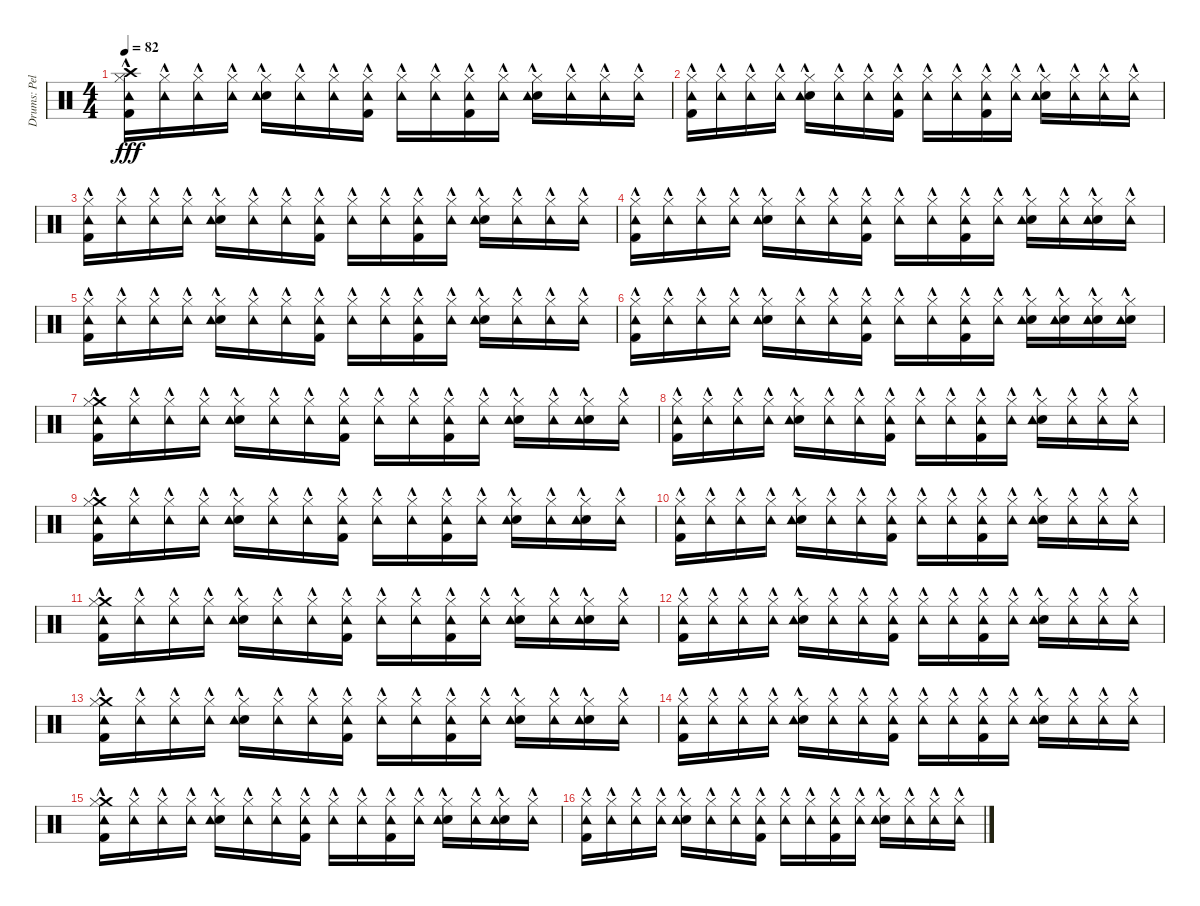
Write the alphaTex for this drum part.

\track ("Drums: Pelle" "Drums: Pel") {instrument percussion}
\staff {score}
\articulation defaults
\ts (4 4)
\tempo 82
\clef neutral
\ks c
("Crash high (hit)"{hac} "Hi-Hat (closed)"{hac} "Tambourine (hit)"{hac} "Kick (hit) 2"{hac}).16{dy fff} ("Hi-Hat (closed)"{hac} "Tambourine (hit)"{hac}).16 ("Hi-Hat (closed)"{hac} "Tambourine (hit)"{hac}).16 ("Hi-Hat (closed)"{hac} "Tambourine (hit)"{hac}).16 ("Hi-Hat (closed)"{hac} "Snare (hit) 2"{hac} "Tambourine (hit)"{hac}).16 ("Hi-Hat (closed)"{hac} "Tambourine (hit)"{hac}).16 ("Hi-Hat (closed)"{hac} "Tambourine (hit)"{hac}).16 ("Hi-Hat (closed)"{hac} "Tambourine (hit)"{hac} "Kick (hit) 2"{hac}).16 ("Hi-Hat (closed)"{hac} "Tambourine (hit)"{hac}).16 ("Hi-Hat (closed)"{hac} "Tambourine (hit)"{hac}).16 ("Hi-Hat (closed)"{hac} "Tambourine (hit)"{hac} "Kick (hit) 2"{hac}).16 ("Hi-Hat (closed)"{hac} "Tambourine (hit)"{hac}).16 ("Hi-Hat (closed)"{hac} "Snare (hit) 2"{hac} "Tambourine (hit)"{hac}).16 ("Hi-Hat (closed)"{hac} "Tambourine (hit)"{hac}).16 ("Hi-Hat (closed)"{hac} "Tambourine (hit)"{hac}).16 ("Hi-Hat (closed)"{hac} "Tambourine (hit)"{hac}).16 |
("Hi-Hat (closed)"{hac} "Tambourine (hit)"{hac} "Kick (hit) 2"{hac}).16 ("Hi-Hat (closed)"{hac} "Tambourine (hit)"{hac}).16 ("Hi-Hat (closed)"{hac} "Tambourine (hit)"{hac}).16 ("Hi-Hat (closed)"{hac} "Tambourine (hit)"{hac}).16 ("Hi-Hat (closed)"{hac} "Snare (hit) 2"{hac} "Tambourine (hit)"{hac}).16 ("Hi-Hat (closed)"{hac} "Tambourine (hit)"{hac}).16 ("Hi-Hat (closed)"{hac} "Tambourine (hit)"{hac}).16 ("Hi-Hat (closed)"{hac} "Tambourine (hit)"{hac} "Kick (hit) 2"{hac}).16 ("Hi-Hat (closed)"{hac} "Tambourine (hit)"{hac}).16 ("Hi-Hat (closed)"{hac} "Tambourine (hit)"{hac}).16 ("Hi-Hat (closed)"{hac} "Tambourine (hit)"{hac} "Kick (hit) 2"{hac}).16 ("Hi-Hat (closed)"{hac} "Tambourine (hit)"{hac}).16 ("Hi-Hat (closed)"{hac} "Snare (hit) 2"{hac} "Tambourine (hit)"{hac}).16 ("Hi-Hat (closed)"{hac} "Tambourine (hit)"{hac}).16 ("Hi-Hat (closed)"{hac} "Tambourine (hit)"{hac}).16 ("Hi-Hat (closed)"{hac} "Tambourine (hit)"{hac}).16 |
("Hi-Hat (closed)"{hac} "Tambourine (hit)"{hac} "Kick (hit) 2"{hac}).16 ("Hi-Hat (closed)"{hac} "Tambourine (hit)"{hac}).16 ("Hi-Hat (closed)"{hac} "Tambourine (hit)"{hac}).16 ("Hi-Hat (closed)"{hac} "Tambourine (hit)"{hac}).16 ("Hi-Hat (closed)"{hac} "Snare (hit) 2"{hac} "Tambourine (hit)"{hac}).16 ("Hi-Hat (closed)"{hac} "Tambourine (hit)"{hac}).16 ("Hi-Hat (closed)"{hac} "Tambourine (hit)"{hac}).16 ("Hi-Hat (closed)"{hac} "Tambourine (hit)"{hac} "Kick (hit) 2"{hac}).16 ("Hi-Hat (closed)"{hac} "Tambourine (hit)"{hac}).16 ("Hi-Hat (closed)"{hac} "Tambourine (hit)"{hac}).16 ("Hi-Hat (closed)"{hac} "Tambourine (hit)"{hac} "Kick (hit) 2"{hac}).16 ("Hi-Hat (closed)"{hac} "Tambourine (hit)"{hac}).16 ("Hi-Hat (closed)"{hac} "Snare (hit) 2"{hac} "Tambourine (hit)"{hac}).16 ("Hi-Hat (closed)"{hac} "Tambourine (hit)"{hac}).16 ("Hi-Hat (closed)"{hac} "Tambourine (hit)"{hac}).16 ("Hi-Hat (closed)"{hac} "Tambourine (hit)"{hac}).16 |
("Hi-Hat (closed)"{hac} "Tambourine (hit)"{hac} "Kick (hit) 2"{hac}).16 ("Hi-Hat (closed)"{hac} "Tambourine (hit)"{hac}).16 ("Hi-Hat (closed)"{hac} "Tambourine (hit)"{hac}).16 ("Hi-Hat (closed)"{hac} "Tambourine (hit)"{hac}).16 ("Hi-Hat (closed)"{hac} "Snare (hit) 2"{hac} "Tambourine (hit)"{hac}).16 ("Hi-Hat (closed)"{hac} "Tambourine (hit)"{hac}).16 ("Hi-Hat (closed)"{hac} "Tambourine (hit)"{hac}).16 ("Hi-Hat (closed)"{hac} "Tambourine (hit)"{hac} "Kick (hit) 2"{hac}).16 ("Hi-Hat (closed)"{hac} "Tambourine (hit)"{hac}).16 ("Hi-Hat (closed)"{hac} "Tambourine (hit)"{hac}).16 ("Hi-Hat (closed)"{hac} "Tambourine (hit)"{hac} "Kick (hit) 2"{hac}).16 ("Hi-Hat (closed)"{hac} "Tambourine (hit)"{hac}).16 ("Hi-Hat (closed)"{hac} "Snare (hit) 2"{hac} "Tambourine (hit)"{hac}).16 ("Hi-Hat (closed)"{hac} "Tambourine (hit)"{hac}).16 ("Hi-Hat (closed)"{hac} "Snare (hit) 2"{hac} "Tambourine (hit)"{hac}).16 ("Hi-Hat (closed)"{hac} "Tambourine (hit)"{hac}).16 |
("Hi-Hat (closed)"{hac} "Tambourine (hit)"{hac} "Kick (hit) 2"{hac}).16 ("Hi-Hat (closed)"{hac} "Tambourine (hit)"{hac}).16 ("Hi-Hat (closed)"{hac} "Tambourine (hit)"{hac}).16 ("Hi-Hat (closed)"{hac} "Tambourine (hit)"{hac}).16 ("Hi-Hat (closed)"{hac} "Snare (hit) 2"{hac} "Tambourine (hit)"{hac}).16 ("Hi-Hat (closed)"{hac} "Tambourine (hit)"{hac}).16 ("Hi-Hat (closed)"{hac} "Tambourine (hit)"{hac}).16 ("Hi-Hat (closed)"{hac} "Tambourine (hit)"{hac} "Kick (hit) 2"{hac}).16 ("Hi-Hat (closed)"{hac} "Tambourine (hit)"{hac}).16 ("Hi-Hat (closed)"{hac} "Tambourine (hit)"{hac}).16 ("Hi-Hat (closed)"{hac} "Tambourine (hit)"{hac} "Kick (hit) 2"{hac}).16 ("Hi-Hat (closed)"{hac} "Tambourine (hit)"{hac}).16 ("Hi-Hat (closed)"{hac} "Snare (hit) 2"{hac} "Tambourine (hit)"{hac}).16 ("Hi-Hat (closed)"{hac} "Tambourine (hit)"{hac}).16 ("Hi-Hat (closed)"{hac} "Tambourine (hit)"{hac}).16 ("Hi-Hat (closed)"{hac} "Tambourine (hit)"{hac}).16 |
("Hi-Hat (closed)"{hac} "Tambourine (hit)"{hac} "Kick (hit) 2"{hac}).16 ("Hi-Hat (closed)"{hac} "Tambourine (hit)"{hac}).16 ("Hi-Hat (closed)"{hac} "Tambourine (hit)"{hac}).16 ("Hi-Hat (closed)"{hac} "Tambourine (hit)"{hac}).16 ("Hi-Hat (closed)"{hac} "Snare (hit) 2"{hac} "Tambourine (hit)"{hac}).16 ("Hi-Hat (closed)"{hac} "Tambourine (hit)"{hac}).16 ("Hi-Hat (closed)"{hac} "Tambourine (hit)"{hac}).16 ("Hi-Hat (closed)"{hac} "Tambourine (hit)"{hac} "Kick (hit) 2"{hac}).16 ("Hi-Hat (closed)"{hac} "Tambourine (hit)"{hac}).16 ("Hi-Hat (closed)"{hac} "Tambourine (hit)"{hac}).16 ("Hi-Hat (closed)"{hac} "Tambourine (hit)"{hac} "Kick (hit) 2"{hac}).16 ("Hi-Hat (closed)"{hac} "Tambourine (hit)"{hac}).16 ("Hi-Hat (closed)"{hac} "Snare (hit) 2"{hac} "Tambourine (hit)"{hac}).16 ("Hi-Hat (closed)"{hac} "Snare (hit) 2"{hac} "Tambourine (hit)"{hac}).16 ("Hi-Hat (closed)"{hac} "Snare (hit) 2"{hac} "Tambourine (hit)"{hac}).16 ("Hi-Hat (closed)"{hac} "Snare (hit) 2"{hac} "Tambourine (hit)"{hac}).16 |
("Crash medium (hit)"{hac} "Hi-Hat (closed)"{hac} "Tambourine (hit)"{hac} "Kick (hit) 2"{hac}).16 ("Hi-Hat (closed)"{hac} "Tambourine (hit)"{hac}).16 ("Hi-Hat (closed)"{hac} "Tambourine (hit)"{hac}).16 ("Hi-Hat (closed)"{hac} "Tambourine (hit)"{hac}).16 ("Hi-Hat (closed)"{hac} "Snare (hit) 2"{hac} "Tambourine (hit)"{hac}).16 ("Hi-Hat (closed)"{hac} "Tambourine (hit)"{hac}).16 ("Hi-Hat (closed)"{hac} "Tambourine (hit)"{hac}).16 ("Hi-Hat (closed)"{hac} "Tambourine (hit)"{hac} "Kick (hit) 2"{hac}).16 ("Hi-Hat (closed)"{hac} "Tambourine (hit)"{hac}).16 ("Hi-Hat (closed)"{hac} "Tambourine (hit)"{hac}).16 ("Hi-Hat (closed)"{hac} "Tambourine (hit)"{hac} "Kick (hit) 2"{hac}).16 ("Hi-Hat (closed)"{hac} "Tambourine (hit)"{hac}).16 ("Hi-Hat (closed)"{hac} "Snare (hit) 2"{hac} "Tambourine (hit)"{hac}).16 ("Hi-Hat (closed)"{hac} "Tambourine (hit)"{hac}).16 ("Hi-Hat (closed)"{hac} "Snare (hit) 2"{hac} "Tambourine (hit)"{hac}).16 ("Hi-Hat (closed)"{hac} "Tambourine (hit)"{hac}).16 |
("Hi-Hat (closed)"{hac} "Tambourine (hit)"{hac} "Kick (hit) 2"{hac}).16 ("Hi-Hat (closed)"{hac} "Tambourine (hit)"{hac}).16 ("Hi-Hat (closed)"{hac} "Tambourine (hit)"{hac}).16 ("Hi-Hat (closed)"{hac} "Tambourine (hit)"{hac}).16 ("Hi-Hat (closed)"{hac} "Snare (hit) 2"{hac} "Tambourine (hit)"{hac}).16 ("Hi-Hat (closed)"{hac} "Tambourine (hit)"{hac}).16 ("Hi-Hat (closed)"{hac} "Tambourine (hit)"{hac}).16 ("Hi-Hat (closed)"{hac} "Tambourine (hit)"{hac} "Kick (hit) 2"{hac}).16 ("Hi-Hat (closed)"{hac} "Tambourine (hit)"{hac}).16 ("Hi-Hat (closed)"{hac} "Tambourine (hit)"{hac}).16 ("Hi-Hat (closed)"{hac} "Tambourine (hit)"{hac} "Kick (hit) 2"{hac}).16 ("Hi-Hat (closed)"{hac} "Tambourine (hit)"{hac}).16 ("Hi-Hat (closed)"{hac} "Snare (hit) 2"{hac} "Tambourine (hit)"{hac}).16 ("Hi-Hat (closed)"{hac} "Tambourine (hit)"{hac}).16 ("Hi-Hat (closed)"{hac} "Tambourine (hit)"{hac}).16 ("Hi-Hat (closed)"{hac} "Tambourine (hit)"{hac}).16 |
("Crash medium (hit)"{hac} "Hi-Hat (closed)"{hac} "Tambourine (hit)"{hac} "Kick (hit) 2"{hac}).16 ("Hi-Hat (closed)"{hac} "Tambourine (hit)"{hac}).16 ("Hi-Hat (closed)"{hac} "Tambourine (hit)"{hac}).16 ("Hi-Hat (closed)"{hac} "Tambourine (hit)"{hac}).16 ("Hi-Hat (closed)"{hac} "Snare (hit) 2"{hac} "Tambourine (hit)"{hac}).16 ("Hi-Hat (closed)"{hac} "Tambourine (hit)"{hac}).16 ("Hi-Hat (closed)"{hac} "Tambourine (hit)"{hac}).16 ("Hi-Hat (closed)"{hac} "Tambourine (hit)"{hac} "Kick (hit) 2"{hac}).16 ("Hi-Hat (closed)"{hac} "Tambourine (hit)"{hac}).16 ("Hi-Hat (closed)"{hac} "Tambourine (hit)"{hac}).16 ("Hi-Hat (closed)"{hac} "Tambourine (hit)"{hac} "Kick (hit) 2"{hac}).16 ("Hi-Hat (closed)"{hac} "Tambourine (hit)"{hac}).16 ("Hi-Hat (closed)"{hac} "Snare (hit) 2"{hac} "Tambourine (hit)"{hac}).16 ("Hi-Hat (closed)"{hac} "Tambourine (hit)"{hac}).16 ("Hi-Hat (closed)"{hac} "Snare (hit) 2"{hac} "Tambourine (hit)"{hac}).16 ("Hi-Hat (closed)"{hac} "Tambourine (hit)"{hac}).16 |
("Hi-Hat (closed)"{hac} "Tambourine (hit)"{hac} "Kick (hit) 2"{hac}).16 ("Hi-Hat (closed)"{hac} "Tambourine (hit)"{hac}).16 ("Hi-Hat (closed)"{hac} "Tambourine (hit)"{hac}).16 ("Hi-Hat (closed)"{hac} "Tambourine (hit)"{hac}).16 ("Hi-Hat (closed)"{hac} "Snare (hit) 2"{hac} "Tambourine (hit)"{hac}).16 ("Hi-Hat (closed)"{hac} "Tambourine (hit)"{hac}).16 ("Hi-Hat (closed)"{hac} "Tambourine (hit)"{hac}).16 ("Hi-Hat (closed)"{hac} "Tambourine (hit)"{hac} "Kick (hit) 2"{hac}).16 ("Hi-Hat (closed)"{hac} "Tambourine (hit)"{hac}).16 ("Hi-Hat (closed)"{hac} "Tambourine (hit)"{hac}).16 ("Hi-Hat (closed)"{hac} "Tambourine (hit)"{hac} "Kick (hit) 2"{hac}).16 ("Hi-Hat (closed)"{hac} "Tambourine (hit)"{hac}).16 ("Hi-Hat (closed)"{hac} "Snare (hit) 2"{hac} "Tambourine (hit)"{hac}).16 ("Hi-Hat (closed)"{hac} "Tambourine (hit)"{hac}).16 ("Hi-Hat (closed)"{hac} "Tambourine (hit)"{hac}).16 ("Hi-Hat (closed)"{hac} "Tambourine (hit)"{hac}).16 |
("Crash medium (hit)"{hac} "Hi-Hat (closed)"{hac} "Tambourine (hit)"{hac} "Kick (hit) 2"{hac}).16 ("Hi-Hat (closed)"{hac} "Tambourine (hit)"{hac}).16 ("Hi-Hat (closed)"{hac} "Tambourine (hit)"{hac}).16 ("Hi-Hat (closed)"{hac} "Tambourine (hit)"{hac}).16 ("Hi-Hat (closed)"{hac} "Snare (hit) 2"{hac} "Tambourine (hit)"{hac}).16 ("Hi-Hat (closed)"{hac} "Tambourine (hit)"{hac}).16 ("Hi-Hat (closed)"{hac} "Tambourine (hit)"{hac}).16 ("Hi-Hat (closed)"{hac} "Tambourine (hit)"{hac} "Kick (hit) 2"{hac}).16 ("Hi-Hat (closed)"{hac} "Tambourine (hit)"{hac}).16 ("Hi-Hat (closed)"{hac} "Tambourine (hit)"{hac}).16 ("Hi-Hat (closed)"{hac} "Tambourine (hit)"{hac} "Kick (hit) 2"{hac}).16 ("Hi-Hat (closed)"{hac} "Tambourine (hit)"{hac}).16 ("Hi-Hat (closed)"{hac} "Snare (hit) 2"{hac} "Tambourine (hit)"{hac}).16 ("Hi-Hat (closed)"{hac} "Tambourine (hit)"{hac}).16 ("Hi-Hat (closed)"{hac} "Snare (hit) 2"{hac} "Tambourine (hit)"{hac}).16 ("Hi-Hat (closed)"{hac} "Tambourine (hit)"{hac}).16 |
("Hi-Hat (closed)"{hac} "Tambourine (hit)"{hac} "Kick (hit) 2"{hac}).16 ("Hi-Hat (closed)"{hac} "Tambourine (hit)"{hac}).16 ("Hi-Hat (closed)"{hac} "Tambourine (hit)"{hac}).16 ("Hi-Hat (closed)"{hac} "Tambourine (hit)"{hac}).16 ("Hi-Hat (closed)"{hac} "Snare (hit) 2"{hac} "Tambourine (hit)"{hac}).16 ("Hi-Hat (closed)"{hac} "Tambourine (hit)"{hac}).16 ("Hi-Hat (closed)"{hac} "Tambourine (hit)"{hac}).16 ("Hi-Hat (closed)"{hac} "Tambourine (hit)"{hac} "Kick (hit) 2"{hac}).16 ("Hi-Hat (closed)"{hac} "Tambourine (hit)"{hac}).16 ("Hi-Hat (closed)"{hac} "Tambourine (hit)"{hac}).16 ("Hi-Hat (closed)"{hac} "Tambourine (hit)"{hac} "Kick (hit) 2"{hac}).16 ("Hi-Hat (closed)"{hac} "Tambourine (hit)"{hac}).16 ("Hi-Hat (closed)"{hac} "Snare (hit) 2"{hac} "Tambourine (hit)"{hac}).16 ("Hi-Hat (closed)"{hac} "Tambourine (hit)"{hac}).16 ("Hi-Hat (closed)"{hac} "Tambourine (hit)"{hac}).16 ("Hi-Hat (closed)"{hac} "Tambourine (hit)"{hac}).16 |
("Crash medium (hit)"{hac} "Hi-Hat (closed)"{hac} "Tambourine (hit)"{hac} "Kick (hit) 2"{hac}).16 ("Hi-Hat (closed)"{hac} "Tambourine (hit)"{hac}).16 ("Hi-Hat (closed)"{hac} "Tambourine (hit)"{hac}).16 ("Hi-Hat (closed)"{hac} "Tambourine (hit)"{hac}).16 ("Hi-Hat (closed)"{hac} "Snare (hit) 2"{hac} "Tambourine (hit)"{hac}).16 ("Hi-Hat (closed)"{hac} "Tambourine (hit)"{hac}).16 ("Hi-Hat (closed)"{hac} "Tambourine (hit)"{hac}).16 ("Hi-Hat (closed)"{hac} "Tambourine (hit)"{hac} "Kick (hit) 2"{hac}).16 ("Hi-Hat (closed)"{hac} "Tambourine (hit)"{hac}).16 ("Hi-Hat (closed)"{hac} "Tambourine (hit)"{hac}).16 ("Hi-Hat (closed)"{hac} "Tambourine (hit)"{hac} "Kick (hit) 2"{hac}).16 ("Hi-Hat (closed)"{hac} "Tambourine (hit)"{hac}).16 ("Hi-Hat (closed)"{hac} "Snare (hit) 2"{hac} "Tambourine (hit)"{hac}).16 ("Hi-Hat (closed)"{hac} "Tambourine (hit)"{hac}).16 ("Hi-Hat (closed)"{hac} "Snare (hit) 2"{hac} "Tambourine (hit)"{hac}).16 ("Hi-Hat (closed)"{hac} "Tambourine (hit)"{hac}).16 |
("Hi-Hat (closed)"{hac} "Tambourine (hit)"{hac} "Kick (hit) 2"{hac}).16 ("Hi-Hat (closed)"{hac} "Tambourine (hit)"{hac}).16 ("Hi-Hat (closed)"{hac} "Tambourine (hit)"{hac}).16 ("Hi-Hat (closed)"{hac} "Tambourine (hit)"{hac}).16 ("Hi-Hat (closed)"{hac} "Snare (hit) 2"{hac} "Tambourine (hit)"{hac}).16 ("Hi-Hat (closed)"{hac} "Tambourine (hit)"{hac}).16 ("Hi-Hat (closed)"{hac} "Tambourine (hit)"{hac}).16 ("Hi-Hat (closed)"{hac} "Tambourine (hit)"{hac} "Kick (hit) 2"{hac}).16 ("Hi-Hat (closed)"{hac} "Tambourine (hit)"{hac}).16 ("Hi-Hat (closed)"{hac} "Tambourine (hit)"{hac}).16 ("Hi-Hat (closed)"{hac} "Tambourine (hit)"{hac} "Kick (hit) 2"{hac}).16 ("Hi-Hat (closed)"{hac} "Tambourine (hit)"{hac}).16 ("Hi-Hat (closed)"{hac} "Snare (hit) 2"{hac} "Tambourine (hit)"{hac}).16 ("Hi-Hat (closed)"{hac} "Tambourine (hit)"{hac}).16 ("Hi-Hat (closed)"{hac} "Tambourine (hit)"{hac}).16 ("Hi-Hat (closed)"{hac} "Tambourine (hit)"{hac}).16 |
("Crash medium (hit)"{hac} "Hi-Hat (closed)"{hac} "Tambourine (hit)"{hac} "Kick (hit) 2"{hac}).16 ("Hi-Hat (closed)"{hac} "Tambourine (hit)"{hac}).16 ("Hi-Hat (closed)"{hac} "Tambourine (hit)"{hac}).16 ("Hi-Hat (closed)"{hac} "Tambourine (hit)"{hac}).16 ("Hi-Hat (closed)"{hac} "Snare (hit) 2"{hac} "Tambourine (hit)"{hac}).16 ("Hi-Hat (closed)"{hac} "Tambourine (hit)"{hac}).16 ("Hi-Hat (closed)"{hac} "Tambourine (hit)"{hac}).16 ("Hi-Hat (closed)"{hac} "Tambourine (hit)"{hac} "Kick (hit) 2"{hac}).16 ("Hi-Hat (closed)"{hac} "Tambourine (hit)"{hac}).16 ("Hi-Hat (closed)"{hac} "Tambourine (hit)"{hac}).16 ("Hi-Hat (closed)"{hac} "Tambourine (hit)"{hac} "Kick (hit) 2"{hac}).16 ("Hi-Hat (closed)"{hac} "Tambourine (hit)"{hac}).16 ("Hi-Hat (closed)"{hac} "Snare (hit) 2"{hac} "Tambourine (hit)"{hac}).16 ("Hi-Hat (closed)"{hac} "Tambourine (hit)"{hac}).16 ("Hi-Hat (closed)"{hac} "Snare (hit) 2"{hac} "Tambourine (hit)"{hac}).16 ("Hi-Hat (closed)"{hac} "Tambourine (hit)"{hac}).16 |
("Hi-Hat (closed)"{hac} "Tambourine (hit)"{hac} "Kick (hit) 2"{hac}).16 ("Hi-Hat (closed)"{hac} "Tambourine (hit)"{hac}).16 ("Hi-Hat (closed)"{hac} "Tambourine (hit)"{hac}).16 ("Hi-Hat (closed)"{hac} "Tambourine (hit)"{hac}).16 ("Hi-Hat (closed)"{hac} "Snare (hit) 2"{hac} "Tambourine (hit)"{hac}).16 ("Hi-Hat (closed)"{hac} "Tambourine (hit)"{hac}).16 ("Hi-Hat (closed)"{hac} "Tambourine (hit)"{hac}).16 ("Hi-Hat (closed)"{hac} "Tambourine (hit)"{hac} "Kick (hit) 2"{hac}).16 ("Hi-Hat (closed)"{hac} "Tambourine (hit)"{hac}).16 ("Hi-Hat (closed)"{hac} "Tambourine (hit)"{hac}).16 ("Hi-Hat (closed)"{hac} "Tambourine (hit)"{hac} "Kick (hit) 2"{hac}).16 ("Hi-Hat (closed)"{hac} "Tambourine (hit)"{hac}).16 ("Hi-Hat (closed)"{hac} "Snare (hit) 2"{hac} "Tambourine (hit)"{hac}).16 ("Hi-Hat (closed)"{hac} "Tambourine (hit)"{hac}).16 ("Hi-Hat (closed)"{hac} "Tambourine (hit)"{hac}).16 ("Hi-Hat (closed)"{hac} "Tambourine (hit)"{hac}).16
